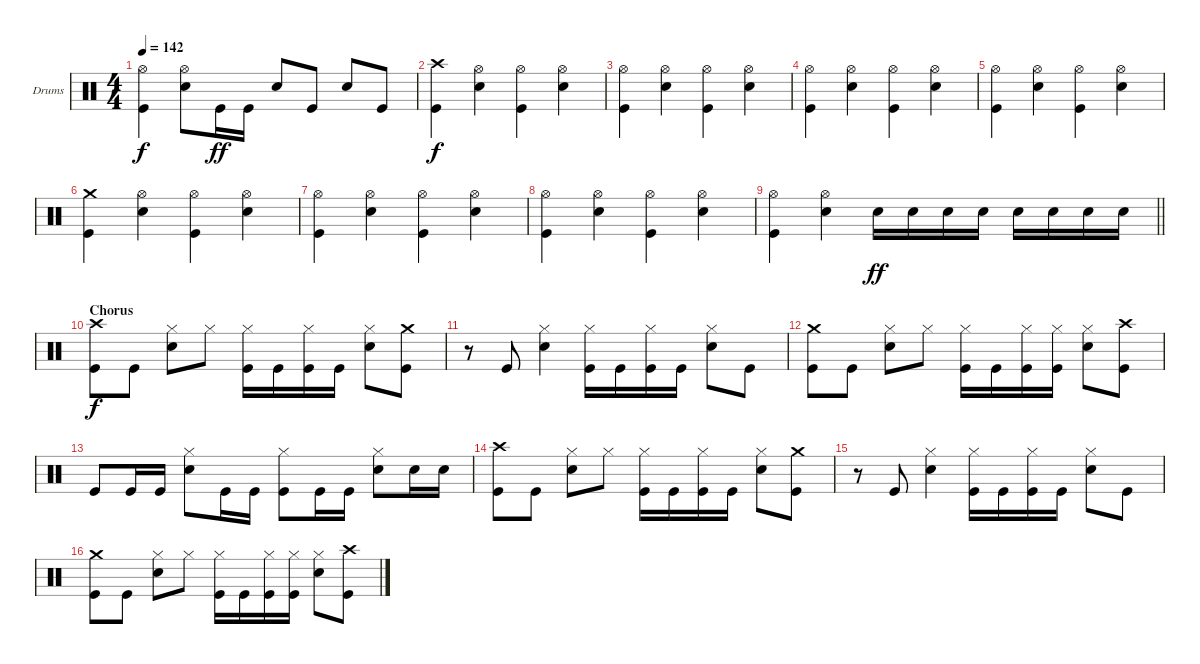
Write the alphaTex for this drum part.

\bracketExtendMode groupsimilarinstruments
\firstSystemTrackNameOrientation horizontal
\otherSystemsTrackNameOrientation horizontal
\track ("Percussion" "Drums") {instrument percussion}
\staff {score}
\articulation defaults
\ts (4 4)
\tempo 142
\clef neutral
\ks c
("Hi-Hat (open)" "Kick (hit)").4{dy f} ("Hi-Hat (open)" "Snare (hit) 2").8 "Kick (hit)".16{dy ff} "Kick (hit)".16 "Snare (hit) 2".8 "Kick (hit)".8 "Snare (hit) 2".8 "Kick (hit)".8 |
("Crash high (hit)" "Kick (hit)").4{dy f} ("Hi-Hat (open)" "Snare (hit) 2").4 ("Hi-Hat (open)" "Kick (hit)").4 ("Hi-Hat (open)" "Snare (hit) 2").4 |
("Hi-Hat (open)" "Kick (hit)").4 ("Hi-Hat (open)" "Snare (hit) 2").4 ("Hi-Hat (open)" "Kick (hit)").4 ("Hi-Hat (open)" "Snare (hit) 2").4 |
("Hi-Hat (open)" "Kick (hit)").4 ("Hi-Hat (open)" "Snare (hit) 2").4 ("Hi-Hat (open)" "Kick (hit)").4 ("Hi-Hat (open)" "Snare (hit) 2").4 |
("Hi-Hat (open)" "Kick (hit)").4 ("Hi-Hat (open)" "Snare (hit) 2").4 ("Hi-Hat (open)" "Kick (hit)").4 ("Hi-Hat (open)" "Snare (hit) 2").4 |
("Crash medium (hit)" "Kick (hit)").4 ("Hi-Hat (open)" "Snare (hit) 2").4 ("Hi-Hat (open)" "Kick (hit)").4 ("Hi-Hat (open)" "Snare (hit) 2").4 |
("Hi-Hat (open)" "Kick (hit)").4 ("Hi-Hat (open)" "Snare (hit) 2").4 ("Hi-Hat (open)" "Kick (hit)").4 ("Hi-Hat (open)" "Snare (hit) 2").4 |
("Hi-Hat (open)" "Kick (hit)").4 ("Hi-Hat (open)" "Snare (hit) 2").4 ("Hi-Hat (open)" "Kick (hit)").4 ("Hi-Hat (open)" "Snare (hit) 2").4 |
\barLineRight lightlight
("Hi-Hat (open)" "Kick (hit)").4 ("Hi-Hat (open)" "Snare (hit) 2").4 "Snare (hit) 2".16{dy ff} "Snare (hit) 2".16 "Snare (hit) 2".16 "Snare (hit) 2".16 "Snare (hit) 2".16 "Snare (hit) 2".16 "Snare (hit) 2".16 "Snare (hit) 2".16 |
\section ("" "Chorus")
("Crash high (hit)" "Kick (hit)").8{dy f} "Kick (hit)".8 ("Hi-Hat (closed)" "Snare (hit) 2").8 "Hi-Hat (closed)".8 ("Hi-Hat (closed)" "Kick (hit)").16 "Kick (hit)".16 ("Hi-Hat (closed)" "Kick (hit)").16 "Kick (hit)".16 ("Hi-Hat (closed)" "Snare (hit) 2").8 ("Crash medium (hit)" "Kick (hit)").8 |
r.8 "Kick (hit)".8 ("Hi-Hat (closed)" "Snare (hit) 2").4 ("Hi-Hat (closed)" "Kick (hit)").16 "Kick (hit)".16 ("Hi-Hat (closed)" "Kick (hit)").16 "Kick (hit)".16 ("Hi-Hat (closed)" "Snare (hit) 2").8 "Kick (hit)".8 |
("Crash medium (hit)" "Kick (hit)").8 "Kick (hit)".8 ("Hi-Hat (closed)" "Snare (hit) 2").8 "Hi-Hat (closed)".8 ("Hi-Hat (closed)" "Kick (hit)").16 "Kick (hit)".16 ("Hi-Hat (closed)" "Kick (hit)").16 ("Hi-Hat (closed)" "Kick (hit)").16 ("Hi-Hat (closed)" "Snare (hit) 2").8 ("Crash high (hit)" "Kick (hit)").8 |
"Kick (hit)".8 "Kick (hit)".16 "Kick (hit)".16 ("Hi-Hat (closed)" "Snare (hit) 2").8 "Kick (hit)".16 "Kick (hit)".16 ("Hi-Hat (closed)" "Kick (hit)").8 "Kick (hit)".16 "Kick (hit)".16 ("Hi-Hat (closed)" "Snare (hit) 2").8 "Snare (hit) 2".16 "Snare (hit) 2".16 |
("Crash high (hit)" "Kick (hit)").8 "Kick (hit)".8 ("Hi-Hat (closed)" "Snare (hit) 2").8 "Hi-Hat (closed)".8 ("Hi-Hat (closed)" "Kick (hit)").16 "Kick (hit)".16 ("Hi-Hat (closed)" "Kick (hit)").16 "Kick (hit)".16 ("Hi-Hat (closed)" "Snare (hit) 2").8 ("Crash medium (hit)" "Kick (hit)").8 |
r.8 "Kick (hit)".8 ("Hi-Hat (closed)" "Snare (hit) 2").4 ("Hi-Hat (closed)" "Kick (hit)").16 "Kick (hit)".16 ("Hi-Hat (closed)" "Kick (hit)").16 "Kick (hit)".16 ("Hi-Hat (closed)" "Snare (hit) 2").8 "Kick (hit)".8 |
("Crash medium (hit)" "Kick (hit)").8 "Kick (hit)".8 ("Hi-Hat (closed)" "Snare (hit) 2").8 "Hi-Hat (closed)".8 ("Hi-Hat (closed)" "Kick (hit)").16 "Kick (hit)".16 ("Hi-Hat (closed)" "Kick (hit)").16 ("Hi-Hat (closed)" "Kick (hit)").16 ("Hi-Hat (closed)" "Snare (hit) 2").8 ("Crash high (hit)" "Kick (hit)").8
